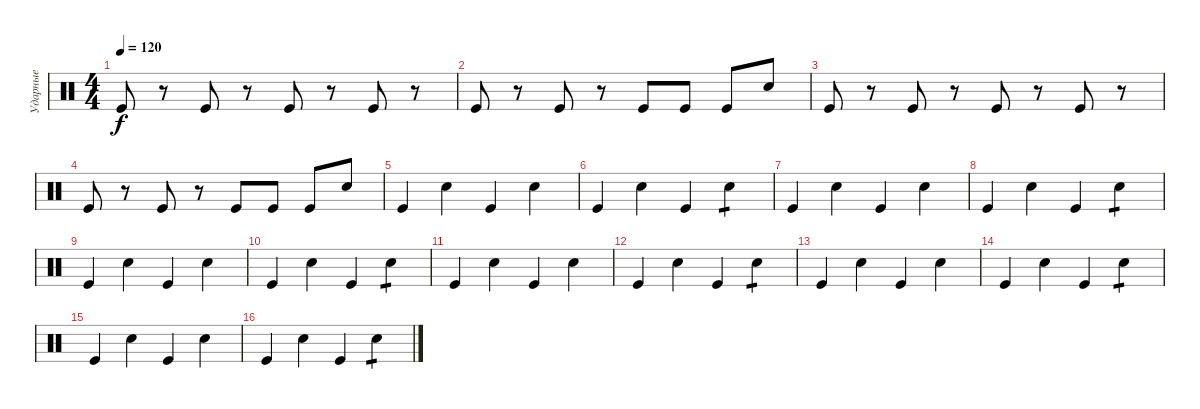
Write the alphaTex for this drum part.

\track ("Ударные" "Ударные") {instrument percussion}
\staff {score}
\articulation defaults
\ts (4 4)
\tempo 120
\clef neutral
\ks c "Kick (hit)".8{dy f}
r.8 "Kick (hit)".8 r.8 "Kick (hit)".8 r.8 "Kick (hit)".8 r.8 |
"Kick (hit)".8 r.8 "Kick (hit)".8 r.8 "Kick (hit)".8 "Kick (hit)".8 "Kick (hit)".8 "Snare (hit) 2".8 |
"Kick (hit)".8 r.8 "Kick (hit)".8 r.8 "Kick (hit)".8 r.8 "Kick (hit)".8 r.8 |
"Kick (hit)".8 r.8 "Kick (hit)".8 r.8 "Kick (hit)".8 "Kick (hit)".8 "Kick (hit)".8 "Snare (hit) 2".8 |
"Kick (hit)".4 "Snare (hit) 2".4 "Kick (hit)".4 "Snare (hit) 2".4 |
"Kick (hit)".4 "Snare (hit) 2".4 "Kick (hit)".4 "Snare (hit) 2".4{tp 1} |
"Kick (hit)".4 "Snare (hit) 2".4 "Kick (hit)".4 "Snare (hit) 2".4 |
"Kick (hit)".4 "Snare (hit) 2".4 "Kick (hit)".4 "Snare (hit) 2".4{tp 1} |
"Kick (hit)".4 "Snare (hit) 2".4 "Kick (hit)".4 "Snare (hit) 2".4 |
"Kick (hit)".4 "Snare (hit) 2".4 "Kick (hit)".4 "Snare (hit) 2".4{tp 1} |
"Kick (hit)".4 "Snare (hit) 2".4 "Kick (hit)".4 "Snare (hit) 2".4 |
"Kick (hit)".4 "Snare (hit) 2".4 "Kick (hit)".4 "Snare (hit) 2".4{tp 1} |
"Kick (hit)".4 "Snare (hit) 2".4 "Kick (hit)".4 "Snare (hit) 2".4 |
"Kick (hit)".4 "Snare (hit) 2".4 "Kick (hit)".4 "Snare (hit) 2".4{tp 1} |
"Kick (hit)".4 "Snare (hit) 2".4 "Kick (hit)".4 "Snare (hit) 2".4 |
"Kick (hit)".4 "Snare (hit) 2".4 "Kick (hit)".4 "Snare (hit) 2".4{tp 1}
